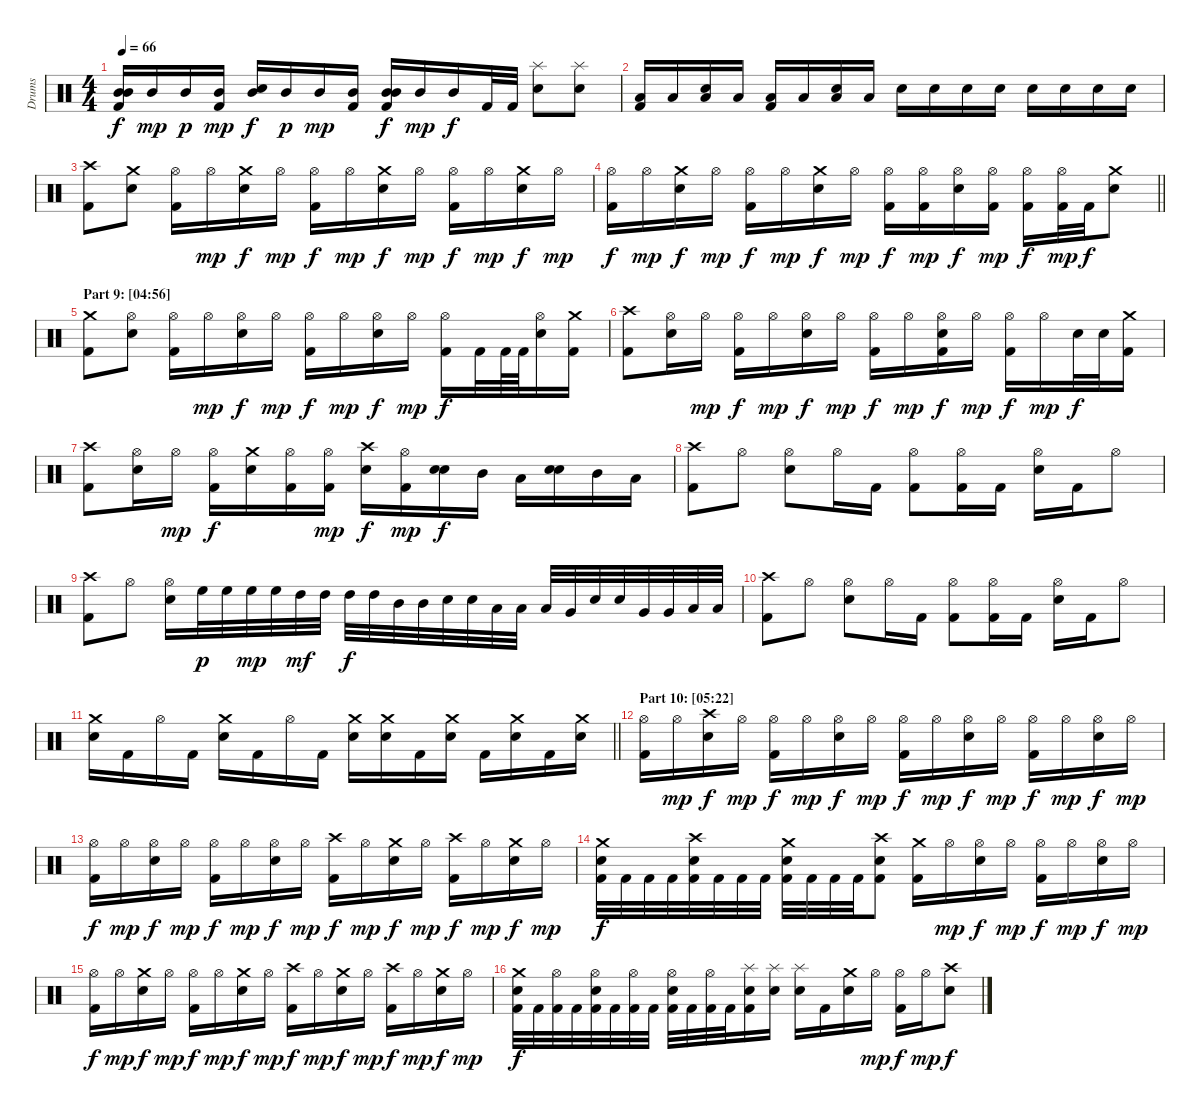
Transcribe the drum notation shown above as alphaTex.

\track ("Drums" "Drums") {instrument percussion}
\staff {score}
\articulation defaults
\ts (4 4)
\tempo 66
\clef neutral
\ks c
("Mid Tom (hit)" "Mid Tom (hit)" "Kick (hit) 2").16{dy f} "Mid Tom (hit)".16{dy mp} "Mid Tom (hit)".16{dy p} ("Mid Tom (hit)" "Kick (hit) 2").16{dy mp} ("Mid Tom (hit)" "Electric Snare (hit)").16{dy f} "Mid Tom (hit)".16{dy p} "Mid Tom (hit)".16{dy mp} ("Mid Tom (hit)" "Kick (hit) 2").16 ("Mid Tom (hit)" "Mid Tom (hit)" "Kick (hit) 2").16{dy f} "Mid Tom (hit)".16{dy mp} "Mid Tom (hit)".16{dy f} "Kick (hit) 2".32 "Kick (hit) 2".32 ("Splash (hit)" "Electric Snare (hit)").8 ("Splash (hit)" "Electric Snare (hit)").8 |
("Low Floor Tom (hit)" "Kick (hit) 2").16 "Low Floor Tom (hit)".16 ("Low Floor Tom (hit)" "Electric Snare (hit)").16 "Low Floor Tom (hit)".16 ("Low Floor Tom (hit)" "Kick (hit) 2").16 "Low Floor Tom (hit)".16 ("Low Floor Tom (hit)" "Electric Snare (hit)").16 "Low Floor Tom (hit)".16 "Electric Snare (hit)".16 "Electric Snare (hit)".16 "Electric Snare (hit)".16 "Electric Snare (hit)".16 "Electric Snare (hit)".16 "Electric Snare (hit)".16 "Electric Snare (hit)".16 "Electric Snare (hit)".16 |
("Crash high (hit)" "Kick (hit) 2").8 ("Crash medium (hit)" "Electric Snare (hit)").8 ("Hi-Hat (open)" "Kick (hit) 2").16 "Hi-Hat (open)".16{dy mp} ("Crash medium (hit)" "Electric Snare (hit)").16{dy f} "Hi-Hat (open)".16{dy mp} ("Hi-Hat (open)" "Kick (hit) 2").16{dy f} "Hi-Hat (open)".16{dy mp} ("Crash medium (hit)" "Electric Snare (hit)").16{dy f} "Hi-Hat (open)".16{dy mp} ("Hi-Hat (open)" "Kick (hit) 2").16{dy f} "Hi-Hat (open)".16{dy mp} ("Crash medium (hit)" "Electric Snare (hit)").16{dy f} "Hi-Hat (open)".16{dy mp} |
\barLineRight lightlight
("Hi-Hat (open)" "Kick (hit) 2").16{dy f} "Hi-Hat (open)".16{dy mp} ("Crash medium (hit)" "Electric Snare (hit)").16{dy f} "Hi-Hat (open)".16{dy mp} ("Hi-Hat (open)" "Kick (hit) 2").16{dy f} "Hi-Hat (open)".16{dy mp} ("Crash medium (hit)" "Electric Snare (hit)").16{dy f} "Hi-Hat (open)".16{dy mp} ("Hi-Hat (open)" "Kick (hit) 2").16{dy f} ("Hi-Hat (open)" "Kick (hit) 2").16{dy mp} ("Hi-Hat (open)" "Electric Snare (hit)").16{dy f} ("Hi-Hat (open)" "Kick (hit) 2").16{dy mp} ("Hi-Hat (open)" "Kick (hit) 2").16{dy f} ("Hi-Hat (open)" "Kick (hit) 2").32{dy mp} "Kick (hit) 2".32{dy f} ("Crash medium (hit)" "Electric Snare (hit)").8 |
\section ("" "Part 9: [04:56]")
("Crash medium (hit)" "Kick (hit) 2").8 ("Hi-Hat (open)" "Electric Snare (hit)").8 ("Hi-Hat (open)" "Kick (hit) 2").16 "Hi-Hat (open)".16{dy mp} ("Hi-Hat (open)" "Electric Snare (hit)").16{dy f} "Hi-Hat (open)".16{dy mp} ("Hi-Hat (open)" "Kick (hit) 2").16{dy f} "Hi-Hat (open)".16{dy mp} ("Hi-Hat (open)" "Electric Snare (hit)").16{dy f} "Hi-Hat (open)".16{dy mp} ("Hi-Hat (open)" "Kick (hit) 2").16{dy f} "Kick (hit) 2".32 "Kick (hit) 2".64 "Kick (hit) 2".64 ("Hi-Hat (open)" "Electric Snare (hit)").16 ("Crash medium (hit)" "Kick (hit) 2").16 |
("Crash high (hit)" "Kick (hit) 2").8 ("Hi-Hat (open)" "Electric Snare (hit)").16 "Hi-Hat (open)".16{dy mp} ("Hi-Hat (open)" "Kick (hit) 2").16{dy f} "Hi-Hat (open)".16{dy mp} ("Hi-Hat (open)" "Electric Snare (hit)").16{dy f} "Hi-Hat (open)".16{dy mp} ("Hi-Hat (open)" "Kick (hit) 2").16{dy f} "Hi-Hat (open)".16{dy mp} ("Hi-Hat (open)" "Electric Snare (hit)" "Kick (hit) 2").16{dy f} "Hi-Hat (open)".16{dy mp} ("Hi-Hat (open)" "Kick (hit) 2").16{dy f} "Hi-Hat (open)".16{dy mp} "Electric Snare (hit)".32{dy f} "Electric Snare (hit)".32 ("Crash medium (hit)" "Kick (hit) 2").16 |
("Crash high (hit)" "Kick (hit) 2").8 ("Hi-Hat (open)" "Electric Snare (hit)").16 "Hi-Hat (open)".16{dy mp} ("Hi-Hat (open)" "Kick (hit) 2").16{dy f} ("Crash medium (hit)" "Electric Snare (hit)").16 ("Hi-Hat (open)" "Kick (hit) 2").16 ("Hi-Hat (open)" "Kick (hit) 2").16{dy mp} ("Crash high (hit)" "Electric Snare (hit)").16{dy f} ("Hi-Hat (open)" "Kick (hit) 2").16{dy mp} ("Electric Snare (hit)" "Electric Snare (hit)").16{bd 120 dy f} "Mid Tom (hit)".16 "Low Tom (hit)".16 ("Electric Snare (hit)" "Electric Snare (hit)").16{bd 120} "Mid Tom (hit)".16 "Low Tom (hit)".16 |
("Crash high (hit)" "Kick (hit) 2").8 "Hi-Hat (open)".8 ("Hi-Hat (open)" "Electric Snare (hit)").8 "Hi-Hat (open)".16 "Kick (hit) 2".16 ("Hi-Hat (open)" "Kick (hit) 2").8 ("Hi-Hat (open)" "Kick (hit) 2").16 "Kick (hit) 2".16 ("Hi-Hat (open)" "Electric Snare (hit)").16 "Kick (hit) 2".16 "Hi-Hat (open)".8 |
("Crash high (hit)" "Kick (hit) 2").8 "Hi-Hat (open)".8 ("Hi-Hat (open)" "Electric Snare (hit)").16 "High Floor Tom (hit)".32{dy p} "High Floor Tom (hit)".32 "High Floor Tom (hit)".32{dy mp} "High Floor Tom (hit)".32 "High Tom (hit)".32{dy mf} "High Tom (hit)".32 "High Tom (hit)".32{dy f} "High Tom (hit)".32 "Mid Tom (hit)".32 "Mid Tom (hit)".32 "Electric Snare (hit)".32 "Electric Snare (hit)".32 "Low Tom (hit)".32 "Low Tom (hit)".32 "Low Tom (hit)".32 "Very Low Tom (hit)".32 "Electric Snare (hit)".32 "Electric Snare (hit)".32 "Very Low Tom (hit)".32 "Very Low Tom (hit)".32 "Low Floor Tom (hit)".32 "Low Floor Tom (hit)".32 |
("Crash high (hit)" "Kick (hit) 2").8 "Hi-Hat (open)".8 ("Hi-Hat (open)" "Electric Snare (hit)").8 "Hi-Hat (open)".16 "Kick (hit) 2".16 ("Hi-Hat (open)" "Kick (hit) 2").8 ("Hi-Hat (open)" "Kick (hit) 2").16 "Kick (hit) 2".16 ("Hi-Hat (open)" "Electric Snare (hit)").16 "Kick (hit) 2".16 "Hi-Hat (open)".8 |
\barLineRight lightlight
("Crash medium (hit)" "Electric Snare (hit)").16 "Kick (hit) 2".16 "Hi-Hat (open)".16 "Kick (hit) 2".16 ("Crash medium (hit)" "Electric Snare (hit)").16 "Kick (hit) 2".16 "Hi-Hat (open)".16 "Kick (hit) 2".16 ("Crash medium (hit)" "Electric Snare (hit)").16 ("Crash medium (hit)" "Electric Snare (hit)").16 "Kick (hit) 2".16 ("Crash medium (hit)" "Electric Snare (hit)").16 "Kick (hit) 2".16 ("Crash medium (hit)" "Electric Snare (hit)").16 "Kick (hit) 2".16 ("Crash medium (hit)" "Electric Snare (hit)").16 |
\section ("" "Part 10: [05:22]")
("Hi-Hat (open)" "Kick (hit) 2").16 "Hi-Hat (open)".16{dy mp} ("Crash high (hit)" "Electric Snare (hit)").16{dy f} "Hi-Hat (open)".16{dy mp} ("Hi-Hat (open)" "Kick (hit) 2").16{dy f} "Hi-Hat (open)".16{dy mp} ("Hi-Hat (open)" "Electric Snare (hit)").16{dy f} "Hi-Hat (open)".16{dy mp} ("Hi-Hat (open)" "Kick (hit) 2").16{dy f} "Hi-Hat (open)".16{dy mp} ("Hi-Hat (open)" "Electric Snare (hit)").16{dy f} "Hi-Hat (open)".16{dy mp} ("Hi-Hat (open)" "Kick (hit) 2").16{dy f} "Hi-Hat (open)".16{dy mp} ("Hi-Hat (open)" "Electric Snare (hit)").16{dy f} "Hi-Hat (open)".16{dy mp} |
("Hi-Hat (open)" "Kick (hit) 2").16{dy f} "Hi-Hat (open)".16{dy mp} ("Hi-Hat (open)" "Electric Snare (hit)").16{dy f} "Hi-Hat (open)".16{dy mp} ("Hi-Hat (open)" "Kick (hit) 2").16{dy f} "Hi-Hat (open)".16{dy mp} ("Hi-Hat (open)" "Electric Snare (hit)").16{dy f} "Hi-Hat (open)".16{dy mp} ("Crash high (hit)" "Kick (hit) 2").16{dy f} "Hi-Hat (open)".16{dy mp} ("Crash medium (hit)" "Electric Snare (hit)").16{dy f} "Hi-Hat (open)".16{dy mp} ("Crash high (hit)" "Kick (hit) 2").16{dy f} "Hi-Hat (open)".16{dy mp} ("Crash medium (hit)" "Electric Snare (hit)").16{dy f} "Hi-Hat (open)".16{dy mp} |
("Crash medium (hit)" "Electric Snare (hit)" "Kick (hit) 2").32{dy f} "Kick (hit) 2".32 "Kick (hit) 2".32 "Kick (hit) 2".32 ("Crash high (hit)" "Electric Snare (hit)" "Kick (hit) 2").32 "Kick (hit) 2".32 "Kick (hit) 2".32 "Kick (hit) 2".32 ("Crash medium (hit)" "Electric Snare (hit)" "Kick (hit) 2").32 "Kick (hit) 2".32 "Kick (hit) 2".32 "Kick (hit) 2".32 ("Crash high (hit)" "Electric Snare (hit)" "Kick (hit) 2").8 ("Crash medium (hit)" "Kick (hit) 2").16 "Hi-Hat (open)".16{dy mp} ("Hi-Hat (open)" "Electric Snare (hit)").16{dy f} "Hi-Hat (open)".16{dy mp} ("Hi-Hat (open)" "Kick (hit) 2").16{dy f} "Hi-Hat (open)".16{dy mp} ("Hi-Hat (open)" "Electric Snare (hit)").16{dy f} "Hi-Hat (open)".16{dy mp} |
("Hi-Hat (open)" "Kick (hit) 2").16{dy f} "Hi-Hat (open)".16{dy mp} ("Crash medium (hit)" "Electric Snare (hit)").16{dy f} "Hi-Hat (open)".16{dy mp} ("Hi-Hat (open)" "Kick (hit) 2").16{dy f} "Hi-Hat (open)".16{dy mp} ("Crash medium (hit)" "Electric Snare (hit)").16{dy f} "Hi-Hat (open)".16{dy mp} ("Crash high (hit)" "Kick (hit) 2").16{dy f} "Hi-Hat (open)".16{dy mp} ("Crash medium (hit)" "Electric Snare (hit)").16{dy f} "Hi-Hat (open)".16{dy mp} ("Crash high (hit)" "Kick (hit) 2").16{dy f} "Hi-Hat (open)".16{dy mp} ("Crash medium (hit)" "Electric Snare (hit)").16{dy f} "Hi-Hat (open)".16{dy mp} |
("Crash medium (hit)" "Electric Snare (hit)" "Kick (hit) 2").32{dy f} "Kick (hit) 2".32 ("Hi-Hat (open)" "Kick (hit) 2").32 "Kick (hit) 2".32 ("Hi-Hat (open)" "Electric Snare (hit)" "Kick (hit) 2").32 "Kick (hit) 2".32 ("Hi-Hat (open)" "Kick (hit) 2").32 "Kick (hit) 2".32 ("Hi-Hat (open)" "Electric Snare (hit)" "Kick (hit) 2").32 "Kick (hit) 2".32 ("Hi-Hat (open)" "Kick (hit) 2").32 "Kick (hit) 2".32 ("Splash (hit)" "Electric Snare (hit)" "Kick (hit) 2").16 ("Splash (hit)" "Electric Snare (hit)").16 ("Splash (hit)" "Electric Snare (hit)").16 "Kick (hit) 2".16 ("Crash medium (hit)" "Electric Snare (hit)").16 "Hi-Hat (open)".16{dy mp} ("Hi-Hat (open)" "Kick (hit) 2").16{dy f} "Hi-Hat (open)".16{dy mp} ("Crash high (hit)" "Electric Snare (hit)").8{dy f}
